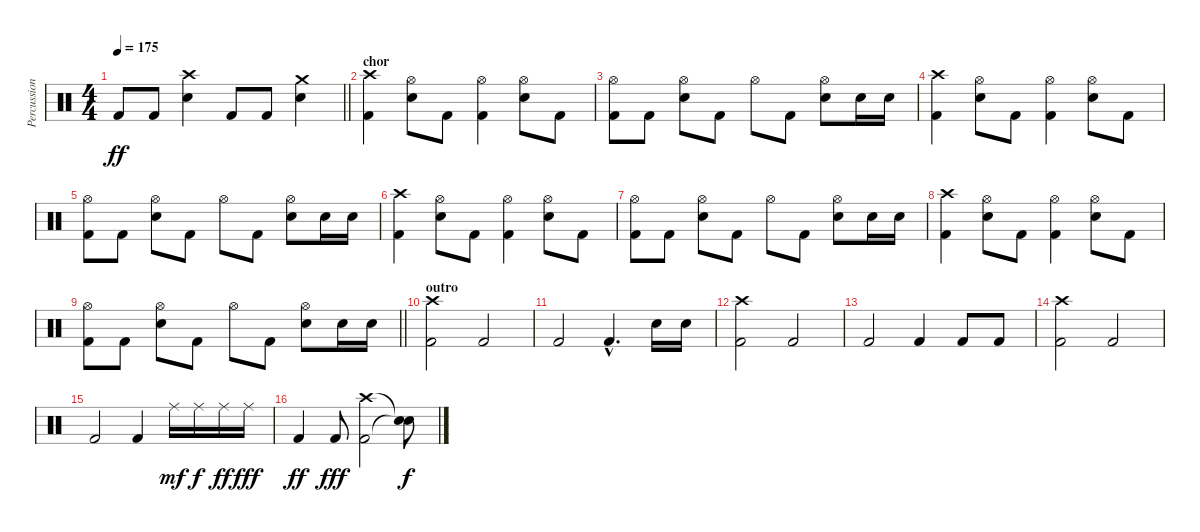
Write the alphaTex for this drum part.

\track ("Percussion" "Percussion") {instrument percussion}
\staff {score}
\articulation defaults
\ts (4 4)
\tempo 175
\clef neutral
\barLineRight lightlight
\ks c "Kick (hit) 2".8{dy ff} "Kick (hit) 2".8
("Crash high (hit)" "Snare (hit) 2").4 "Kick (hit) 2".8 "Kick (hit) 2".8 ("Crash medium (hit)" "Snare (hit) 2").4 |
\section ("" "chor")
("Crash high (hit)" "Kick (hit) 2").4 ("Hi-Hat (open)" "Snare (hit) 2").8 "Kick (hit) 2".8 ("Hi-Hat (open)" "Kick (hit) 2").4 ("Hi-Hat (open)" "Snare (hit) 2").8 "Kick (hit) 2".8 |
("Hi-Hat (open)" "Kick (hit) 2").8 "Kick (hit) 2".8 ("Hi-Hat (open)" "Snare (hit) 2").8 "Kick (hit) 2".8 "Hi-Hat (open)".8 "Kick (hit) 2".8 ("Hi-Hat (open)" "Snare (hit) 2").8 "Snare (hit) 2".16 "Snare (hit) 2".16 |
("Crash high (hit)" "Kick (hit) 2").4 ("Hi-Hat (open)" "Snare (hit) 2").8 "Kick (hit) 2".8 ("Hi-Hat (open)" "Kick (hit) 2").4 ("Hi-Hat (open)" "Snare (hit) 2").8 "Kick (hit) 2".8 |
("Hi-Hat (open)" "Kick (hit) 2").8 "Kick (hit) 2".8 ("Hi-Hat (open)" "Snare (hit) 2").8 "Kick (hit) 2".8 "Hi-Hat (open)".8 "Kick (hit) 2".8 ("Hi-Hat (open)" "Snare (hit) 2").8 "Snare (hit) 2".16 "Snare (hit) 2".16 |
("Crash high (hit)" "Kick (hit) 2").4 ("Hi-Hat (open)" "Snare (hit) 2").8 "Kick (hit) 2".8 ("Hi-Hat (open)" "Kick (hit) 2").4 ("Hi-Hat (open)" "Snare (hit) 2").8 "Kick (hit) 2".8 |
("Hi-Hat (open)" "Kick (hit) 2").8 "Kick (hit) 2".8 ("Hi-Hat (open)" "Snare (hit) 2").8 "Kick (hit) 2".8 "Hi-Hat (open)".8 "Kick (hit) 2".8 ("Hi-Hat (open)" "Snare (hit) 2").8 "Snare (hit) 2".16 "Snare (hit) 2".16 |
("Crash high (hit)" "Kick (hit) 2").4 ("Hi-Hat (open)" "Snare (hit) 2").8 "Kick (hit) 2".8 ("Hi-Hat (open)" "Kick (hit) 2").4 ("Hi-Hat (open)" "Snare (hit) 2").8 "Kick (hit) 2".8 |
\barLineRight lightlight
("Hi-Hat (open)" "Kick (hit) 2").8 "Kick (hit) 2".8 ("Hi-Hat (open)" "Snare (hit) 2").8 "Kick (hit) 2".8 "Hi-Hat (open)".8 "Kick (hit) 2".8 ("Hi-Hat (open)" "Snare (hit) 2").8 "Snare (hit) 2".16 "Snare (hit) 2".16 |
\section ("" "outro")
("Crash high (hit)" "Kick (hit) 2").2 "Kick (hit) 2".2 |
"Kick (hit) 2".2 "Kick (hit) 2"{hac}.4{d} "Snare (hit) 2".16 "Snare (hit) 2".16 |
("Crash high (hit)" "Kick (hit) 2").2 "Kick (hit) 2".2 |
"Kick (hit) 2".2 "Kick (hit) 2".4 "Kick (hit) 2".8 "Kick (hit) 2".8 |
("Crash high (hit)" "Kick (hit) 2").2 "Kick (hit) 2".2 |
"Kick (hit) 2".2 "Kick (hit) 2".4 "Ride (middle)".16{dy mf} "Ride (middle)".16{dy f} "Ride (middle)".16{dy ff} "Ride (middle)".16{dy fff} |
"Kick (hit) 2".4{dy ff} "Kick (hit) 2".8{dy fff} ("Crash high (hit)" "Kick (hit) 2").2 ("Snare (hit)"{t} "Snare (hit)"{t}).8{dy f}
